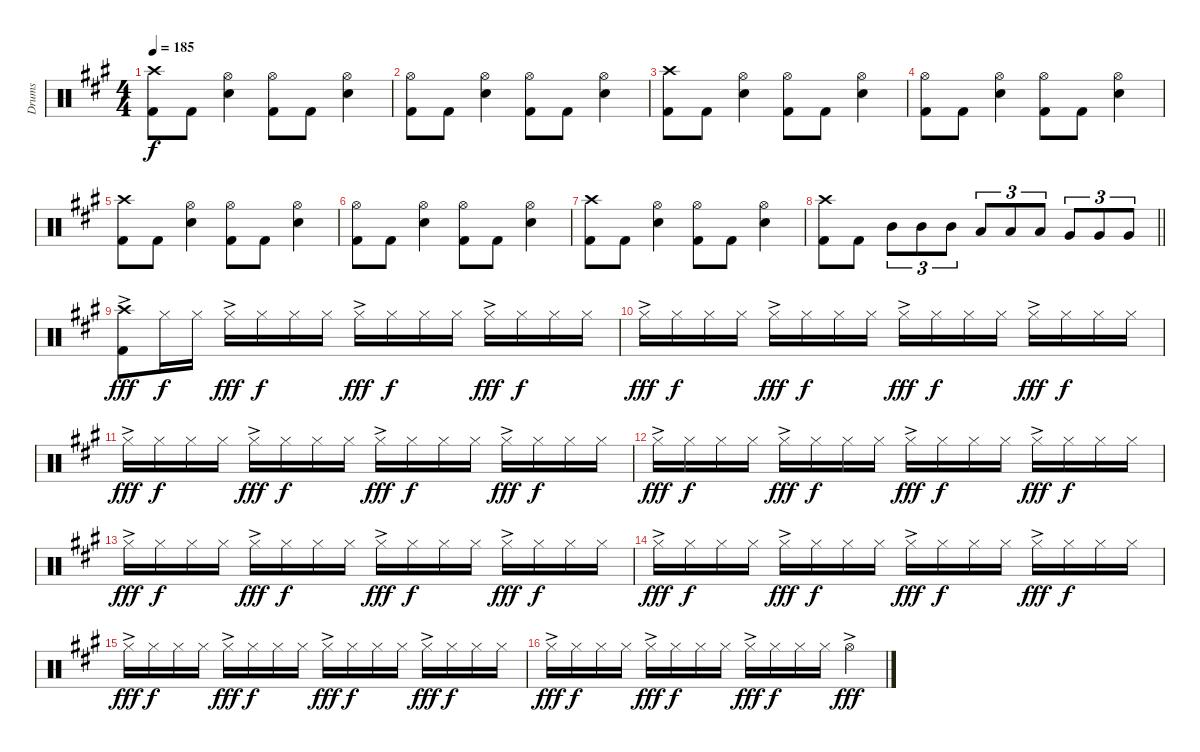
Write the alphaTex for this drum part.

\track ("Drums" "Drums") {instrument percussion}
\staff {score}
\articulation defaults
\ts (4 4)
\tempo 185
\clef neutral
\ks f#minor
("Crash high (hit)" "Kick (hit) 2").8{dy f} "Kick (hit) 2".8 ("Hi-Hat (open)" "Electric Snare (hit)").4 ("Hi-Hat (open)" "Kick (hit) 2").8 "Kick (hit) 2".8 ("Hi-Hat (open)" "Electric Snare (hit)").4 |
("Hi-Hat (open)" "Kick (hit) 2").8 "Kick (hit) 2".8 ("Hi-Hat (open)" "Electric Snare (hit)").4 ("Hi-Hat (open)" "Kick (hit) 2").8 "Kick (hit) 2".8 ("Hi-Hat (open)" "Electric Snare (hit)").4 |
("Crash high (hit)" "Kick (hit) 2").8 "Kick (hit) 2".8 ("Hi-Hat (open)" "Electric Snare (hit)").4 ("Hi-Hat (open)" "Kick (hit) 2").8 "Kick (hit) 2".8 ("Hi-Hat (open)" "Electric Snare (hit)").4 |
("Hi-Hat (open)" "Kick (hit) 2").8 "Kick (hit) 2".8 ("Hi-Hat (open)" "Electric Snare (hit)").4 ("Hi-Hat (open)" "Kick (hit) 2").8 "Kick (hit) 2".8 ("Hi-Hat (open)" "Electric Snare (hit)").4 |
("Crash high (hit)" "Kick (hit) 2").8 "Kick (hit) 2".8 ("Hi-Hat (open)" "Electric Snare (hit)").4 ("Hi-Hat (open)" "Kick (hit) 2").8 "Kick (hit) 2".8 ("Hi-Hat (open)" "Electric Snare (hit)").4 |
("Hi-Hat (open)" "Kick (hit) 2").8 "Kick (hit) 2".8 ("Hi-Hat (open)" "Electric Snare (hit)").4 ("Hi-Hat (open)" "Kick (hit) 2").8 "Kick (hit) 2".8 ("Hi-Hat (open)" "Electric Snare (hit)").4 |
("Crash high (hit)" "Kick (hit) 2").8 "Kick (hit) 2".8 ("Hi-Hat (open)" "Electric Snare (hit)").4 ("Hi-Hat (open)" "Kick (hit) 2").8 "Kick (hit) 2".8 ("Hi-Hat (open)" "Electric Snare (hit)").4 |
\barLineRight lightlight
("Crash high (hit)" "Kick (hit) 2").8 "Kick (hit) 2".8 "Mid Tom (hit)".8{tu (3 2)} "Mid Tom (hit)".8{tu (3 2)} "Mid Tom (hit)".8{tu (3 2)} "Low Tom (hit)".8{tu (3 2)} "Low Tom (hit)".8{tu (3 2)} "Low Tom (hit)".8{tu (3 2)} "Very Low Tom (hit)".8{tu (3 2)} "Very Low Tom (hit)".8{tu (3 2)} "Very Low Tom (hit)".8{tu (3 2)} |
("Crash high (hit)"{ac} "Kick (hit) 2").8{dy fff} "Hi-Hat (closed)".16{dy f} "Hi-Hat (closed)".16 "Hi-Hat (closed)"{ac}.16{dy fff} "Hi-Hat (closed)".16{dy f} "Hi-Hat (closed)".16 "Hi-Hat (closed)".16 "Hi-Hat (closed)"{ac}.16{dy fff} "Hi-Hat (closed)".16{dy f} "Hi-Hat (closed)".16 "Hi-Hat (closed)".16 "Hi-Hat (closed)"{ac}.16{dy fff} "Hi-Hat (closed)".16{dy f} "Hi-Hat (closed)".16 "Hi-Hat (closed)".16 |
"Hi-Hat (closed)"{ac}.16{dy fff} "Hi-Hat (closed)".16{dy f} "Hi-Hat (closed)".16 "Hi-Hat (closed)".16 "Hi-Hat (closed)"{ac}.16{dy fff} "Hi-Hat (closed)".16{dy f} "Hi-Hat (closed)".16 "Hi-Hat (closed)".16 "Hi-Hat (closed)"{ac}.16{dy fff} "Hi-Hat (closed)".16{dy f} "Hi-Hat (closed)".16 "Hi-Hat (closed)".16 "Hi-Hat (closed)"{ac}.16{dy fff} "Hi-Hat (closed)".16{dy f} "Hi-Hat (closed)".16 "Hi-Hat (closed)".16 |
"Hi-Hat (closed)"{ac}.16{dy fff} "Hi-Hat (closed)".16{dy f} "Hi-Hat (closed)".16 "Hi-Hat (closed)".16 "Hi-Hat (closed)"{ac}.16{dy fff} "Hi-Hat (closed)".16{dy f} "Hi-Hat (closed)".16 "Hi-Hat (closed)".16 "Hi-Hat (closed)"{ac}.16{dy fff} "Hi-Hat (closed)".16{dy f} "Hi-Hat (closed)".16 "Hi-Hat (closed)".16 "Hi-Hat (closed)"{ac}.16{dy fff} "Hi-Hat (closed)".16{dy f} "Hi-Hat (closed)".16 "Hi-Hat (closed)".16 |
"Hi-Hat (closed)"{ac}.16{dy fff} "Hi-Hat (closed)".16{dy f} "Hi-Hat (closed)".16 "Hi-Hat (closed)".16 "Hi-Hat (closed)"{ac}.16{dy fff} "Hi-Hat (closed)".16{dy f} "Hi-Hat (closed)".16 "Hi-Hat (closed)".16 "Hi-Hat (closed)"{ac}.16{dy fff} "Hi-Hat (closed)".16{dy f} "Hi-Hat (closed)".16 "Hi-Hat (closed)".16 "Hi-Hat (closed)"{ac}.16{dy fff} "Hi-Hat (closed)".16{dy f} "Hi-Hat (closed)".16 "Hi-Hat (closed)".16 |
"Hi-Hat (closed)"{ac}.16{dy fff} "Hi-Hat (closed)".16{dy f} "Hi-Hat (closed)".16 "Hi-Hat (closed)".16 "Hi-Hat (closed)"{ac}.16{dy fff} "Hi-Hat (closed)".16{dy f} "Hi-Hat (closed)".16 "Hi-Hat (closed)".16 "Hi-Hat (closed)"{ac}.16{dy fff} "Hi-Hat (closed)".16{dy f} "Hi-Hat (closed)".16 "Hi-Hat (closed)".16 "Hi-Hat (closed)"{ac}.16{dy fff} "Hi-Hat (closed)".16{dy f} "Hi-Hat (closed)".16 "Hi-Hat (closed)".16 |
"Hi-Hat (closed)"{ac}.16{dy fff} "Hi-Hat (closed)".16{dy f} "Hi-Hat (closed)".16 "Hi-Hat (closed)".16 "Hi-Hat (closed)"{ac}.16{dy fff} "Hi-Hat (closed)".16{dy f} "Hi-Hat (closed)".16 "Hi-Hat (closed)".16 "Hi-Hat (closed)"{ac}.16{dy fff} "Hi-Hat (closed)".16{dy f} "Hi-Hat (closed)".16 "Hi-Hat (closed)".16 "Hi-Hat (closed)"{ac}.16{dy fff} "Hi-Hat (closed)".16{dy f} "Hi-Hat (closed)".16 "Hi-Hat (closed)".16 |
"Hi-Hat (closed)"{ac}.16{dy fff} "Hi-Hat (closed)".16{dy f} "Hi-Hat (closed)".16 "Hi-Hat (closed)".16 "Hi-Hat (closed)"{ac}.16{dy fff} "Hi-Hat (closed)".16{dy f} "Hi-Hat (closed)".16 "Hi-Hat (closed)".16 "Hi-Hat (closed)"{ac}.16{dy fff} "Hi-Hat (closed)".16{dy f} "Hi-Hat (closed)".16 "Hi-Hat (closed)".16 "Hi-Hat (closed)"{ac}.16{dy fff} "Hi-Hat (closed)".16{dy f} "Hi-Hat (closed)".16 "Hi-Hat (closed)".16 |
"Hi-Hat (closed)"{ac}.16{dy fff} "Hi-Hat (closed)".16{dy f} "Hi-Hat (closed)".16 "Hi-Hat (closed)".16 "Hi-Hat (closed)"{ac}.16{dy fff} "Hi-Hat (closed)".16{dy f} "Hi-Hat (closed)".16 "Hi-Hat (closed)".16 "Hi-Hat (closed)"{ac}.16{dy fff} "Hi-Hat (closed)".16{dy f} "Hi-Hat (closed)".16 "Hi-Hat (closed)".16 "Hi-Hat (open)"{ac}.4{dy fff}
